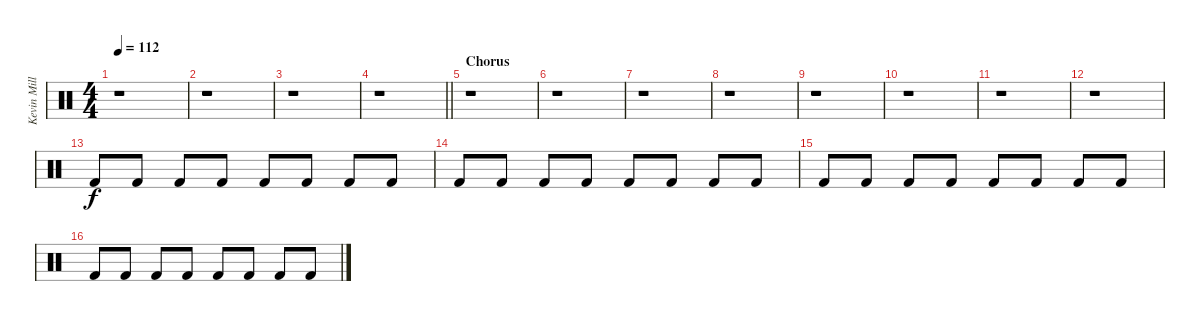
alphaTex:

\track ("Kevin Miller (Drums)" "Kevin Mill") {instrument percussion}
\staff {score}
\articulation defaults
\ts (4 4)
\tempo 112
\clef neutral
\ks c
r.1{dy f} |
r.1 |
r.1 |
\barLineRight lightlight
r.1 |
\section ("" "Chorus")
r.1 |
r.1 |
r.1 |
r.1 |
r.1 |
r.1 |
r.1 |
r.1 |
"Kick (hit) 2".8 "Kick (hit) 2".8 "Kick (hit) 2".8 "Kick (hit) 2".8 "Kick (hit) 2".8 "Kick (hit) 2".8 "Kick (hit) 2".8 "Kick (hit) 2".8 |
"Kick (hit) 2".8 "Kick (hit) 2".8 "Kick (hit) 2".8 "Kick (hit) 2".8 "Kick (hit) 2".8 "Kick (hit) 2".8 "Kick (hit) 2".8 "Kick (hit) 2".8 |
"Kick (hit) 2".8 "Kick (hit) 2".8 "Kick (hit) 2".8 "Kick (hit) 2".8 "Kick (hit) 2".8 "Kick (hit) 2".8 "Kick (hit) 2".8 "Kick (hit) 2".8 |
"Kick (hit) 2".8 "Kick (hit) 2".8 "Kick (hit) 2".8 "Kick (hit) 2".8 "Kick (hit) 2".8 "Kick (hit) 2".8 "Kick (hit) 2".8 "Kick (hit) 2".8
